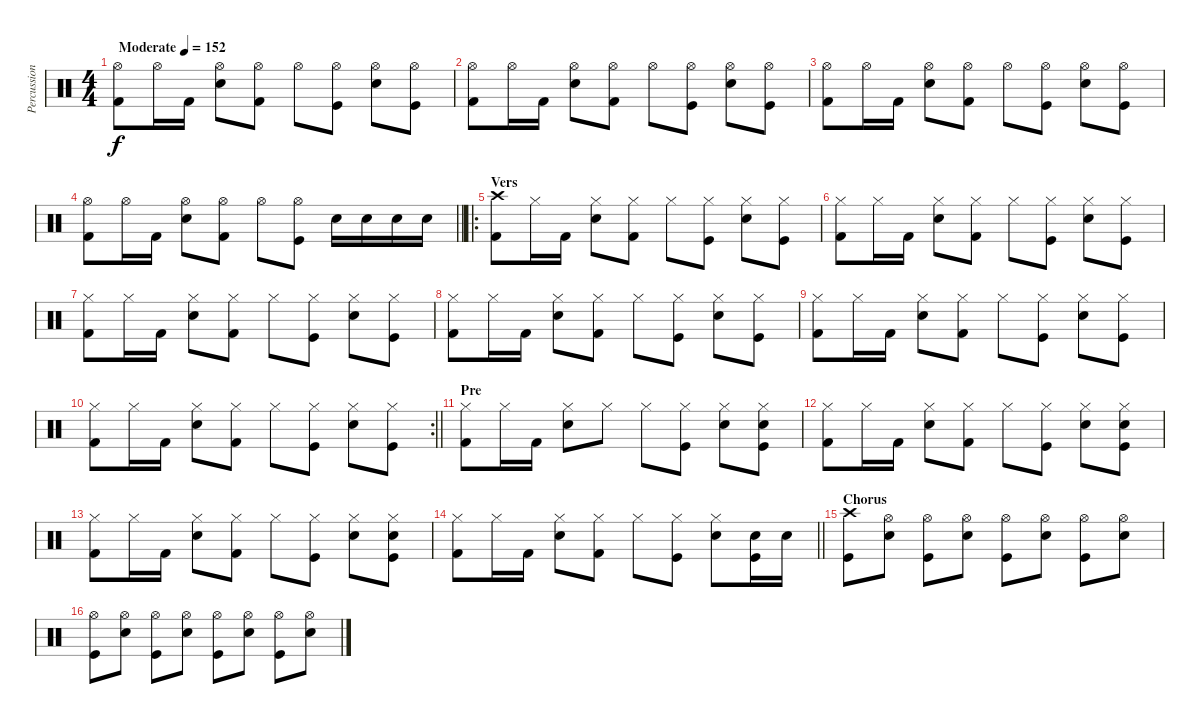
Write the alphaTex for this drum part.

\track ("Percussion" "Percussion") {instrument percussion}
\staff {score}
\articulation defaults
\ts (4 4)
\tempo (152 "Moderate")
\clef neutral
\ks c
("Hi-Hat (open)" "Kick (hit) 2").8{dy f} "Hi-Hat (open)".16 "Kick (hit) 2".16 ("Hi-Hat (open)" "Snare (hit) 2").8 ("Hi-Hat (open)" "Kick (hit) 2").8 "Hi-Hat (open)".8 ("Hi-Hat (open)" "Kick (hit)").8 ("Hi-Hat (open)" "Snare (hit) 2").8 ("Hi-Hat (open)" "Kick (hit)").8 |
("Hi-Hat (open)" "Kick (hit) 2").8 "Hi-Hat (open)".16 "Kick (hit) 2".16 ("Hi-Hat (open)" "Snare (hit) 2").8 ("Hi-Hat (open)" "Kick (hit) 2").8 "Hi-Hat (open)".8 ("Hi-Hat (open)" "Kick (hit)").8 ("Hi-Hat (open)" "Snare (hit) 2").8 ("Hi-Hat (open)" "Kick (hit)").8 |
("Hi-Hat (open)" "Kick (hit) 2").8 "Hi-Hat (open)".16 "Kick (hit) 2".16 ("Hi-Hat (open)" "Snare (hit) 2").8 ("Hi-Hat (open)" "Kick (hit) 2").8 "Hi-Hat (open)".8 ("Hi-Hat (open)" "Kick (hit)").8 ("Hi-Hat (open)" "Snare (hit) 2").8 ("Hi-Hat (open)" "Kick (hit)").8 |
\barLineRight lightlight
("Hi-Hat (open)" "Kick (hit) 2").8 "Hi-Hat (open)".16 "Kick (hit) 2".16 ("Hi-Hat (open)" "Snare (hit) 2").8 ("Hi-Hat (open)" "Kick (hit) 2").8 "Hi-Hat (open)".8 ("Hi-Hat (open)" "Kick (hit)").8 "Snare (hit) 2".16 "Snare (hit) 2".16 "Snare (hit) 2".16 "Snare (hit) 2".16 |
\ro
\section ("" "Vers")
("Crash high (hit)" "Kick (hit) 2").8 "Hi-Hat (closed)".16 "Kick (hit) 2".16 ("Hi-Hat (closed)" "Snare (hit) 2").8 ("Hi-Hat (closed)" "Kick (hit) 2").8 "Hi-Hat (closed)".8 ("Hi-Hat (closed)" "Kick (hit)").8 ("Hi-Hat (closed)" "Snare (hit) 2").8 ("Hi-Hat (closed)" "Kick (hit)").8 |
("Hi-Hat (closed)" "Kick (hit) 2").8 "Hi-Hat (closed)".16 "Kick (hit) 2".16 ("Hi-Hat (closed)" "Snare (hit) 2").8 ("Hi-Hat (closed)" "Kick (hit) 2").8 "Hi-Hat (closed)".8 ("Hi-Hat (closed)" "Kick (hit)").8 ("Hi-Hat (closed)" "Snare (hit) 2").8 ("Hi-Hat (closed)" "Kick (hit)").8 |
("Hi-Hat (closed)" "Kick (hit) 2").8 "Hi-Hat (closed)".16 "Kick (hit) 2".16 ("Hi-Hat (closed)" "Snare (hit) 2").8 ("Hi-Hat (closed)" "Kick (hit) 2").8 "Hi-Hat (closed)".8 ("Hi-Hat (closed)" "Kick (hit)").8 ("Hi-Hat (closed)" "Snare (hit) 2").8 ("Hi-Hat (closed)" "Kick (hit)").8 |
("Hi-Hat (closed)" "Kick (hit) 2").8 "Hi-Hat (closed)".16 "Kick (hit) 2".16 ("Hi-Hat (closed)" "Snare (hit) 2").8 ("Hi-Hat (closed)" "Kick (hit) 2").8 "Hi-Hat (closed)".8 ("Hi-Hat (closed)" "Kick (hit)").8 ("Hi-Hat (closed)" "Snare (hit) 2").8 ("Hi-Hat (closed)" "Kick (hit)").8 |
("Hi-Hat (closed)" "Kick (hit) 2").8 "Hi-Hat (closed)".16 "Kick (hit) 2".16 ("Hi-Hat (closed)" "Snare (hit) 2").8 ("Hi-Hat (closed)" "Kick (hit) 2").8 "Hi-Hat (closed)".8 ("Hi-Hat (closed)" "Kick (hit)").8 ("Hi-Hat (closed)" "Snare (hit) 2").8 ("Hi-Hat (closed)" "Kick (hit)").8 |
\rc 2
\barLineRight lightlight
("Hi-Hat (closed)" "Kick (hit) 2").8 "Hi-Hat (closed)".16 "Kick (hit) 2".16 ("Hi-Hat (closed)" "Snare (hit) 2").8 ("Hi-Hat (closed)" "Kick (hit) 2").8 "Hi-Hat (closed)".8 ("Hi-Hat (closed)" "Kick (hit)").8 ("Hi-Hat (closed)" "Snare (hit) 2").8 ("Hi-Hat (closed)" "Kick (hit)").8 |
\section ("" "Pre")
("Hi-Hat (closed)" "Kick (hit) 2").8 "Hi-Hat (closed)".16 "Kick (hit) 2".16 ("Hi-Hat (closed)" "Snare (hit) 2").8 "Hi-Hat (closed)".8 "Hi-Hat (closed)".8 ("Hi-Hat (closed)" "Kick (hit)").8 ("Hi-Hat (closed)" "Snare (hit) 2").8 ("Hi-Hat (closed)" "Snare (hit) 2" "Kick (hit)").8 |
("Hi-Hat (closed)" "Kick (hit) 2").8 "Hi-Hat (closed)".16 "Kick (hit) 2".16 ("Hi-Hat (closed)" "Snare (hit) 2").8 ("Hi-Hat (closed)" "Kick (hit) 2").8 "Hi-Hat (closed)".8 ("Hi-Hat (closed)" "Kick (hit)").8 ("Hi-Hat (closed)" "Snare (hit) 2").8 ("Hi-Hat (closed)" "Snare (hit) 2" "Kick (hit)").8 |
("Hi-Hat (closed)" "Kick (hit) 2").8 "Hi-Hat (closed)".16 "Kick (hit) 2".16 ("Hi-Hat (closed)" "Snare (hit) 2").8 ("Hi-Hat (closed)" "Kick (hit) 2").8 "Hi-Hat (closed)".8 ("Hi-Hat (closed)" "Kick (hit)").8 ("Hi-Hat (closed)" "Snare (hit) 2").8 ("Hi-Hat (closed)" "Snare (hit) 2" "Kick (hit)").8 |
\barLineRight lightlight
("Hi-Hat (closed)" "Kick (hit) 2").8 "Hi-Hat (closed)".16 "Kick (hit) 2".16 ("Hi-Hat (closed)" "Snare (hit) 2").8 ("Hi-Hat (closed)" "Kick (hit) 2").8 "Hi-Hat (closed)".8 ("Hi-Hat (closed)" "Kick (hit)").8 ("Hi-Hat (closed)" "Snare (hit) 2").8 ("Snare (hit) 2" "Kick (hit)").16 "Snare (hit) 2".16 |
\section ("" "Chorus")
("Crash high (hit)" "Kick (hit)").8 ("Hi-Hat (open)" "Snare (hit) 2").8 ("Hi-Hat (open)" "Kick (hit)").8 ("Hi-Hat (open)" "Snare (hit) 2").8 ("Hi-Hat (open)" "Kick (hit)").8 ("Hi-Hat (open)" "Snare (hit) 2").8 ("Hi-Hat (open)" "Kick (hit)").8 ("Hi-Hat (open)" "Snare (hit) 2").8 |
("Hi-Hat (open)" "Kick (hit)").8 ("Hi-Hat (open)" "Snare (hit) 2").8 ("Hi-Hat (open)" "Kick (hit)").8 ("Hi-Hat (open)" "Snare (hit) 2").8 ("Hi-Hat (open)" "Kick (hit)").8 ("Hi-Hat (open)" "Snare (hit) 2").8 ("Hi-Hat (open)" "Kick (hit)").8 ("Hi-Hat (open)" "Snare (hit) 2").8
